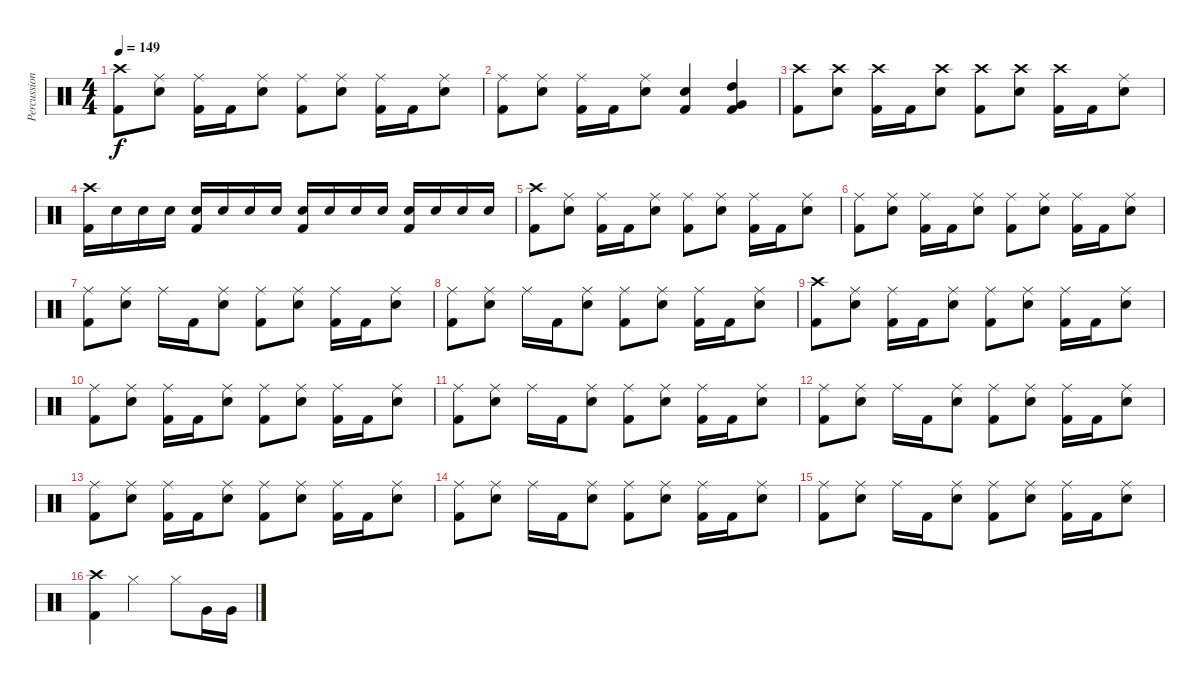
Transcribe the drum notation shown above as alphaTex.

\track ("Percussion" "Percussion") {instrument percussion}
\staff {score}
\articulation defaults
\ts (4 4)
\tempo 149
\clef neutral
\ks c
("Crash high (hit)" "Kick (hit) 2").8{dy f} ("Ride (middle)" "Snare (hit) 2").8 ("Ride (middle)" "Kick (hit) 2").16 "Kick (hit) 2".16 ("Ride (middle)" "Snare (hit) 2").8 ("Ride (middle)" "Kick (hit) 2").8 ("Ride (middle)" "Snare (hit) 2").8 ("Ride (middle)" "Kick (hit) 2").16 "Kick (hit) 2".16 ("Ride (middle)" "Snare (hit) 2").8 |
("Ride (middle)" "Kick (hit) 2").8 ("Ride (middle)" "Snare (hit) 2").8 ("Ride (middle)" "Kick (hit) 2").16 "Kick (hit) 2".16 ("Ride (middle)" "Snare (hit) 2").8 ("Snare (hit) 2" "Kick (hit) 2").4 ("High Tom (hit)" "Very Low Tom (hit)" "Kick (hit) 2").4 |
("Crash high (hit)" "Kick (hit) 2").8 ("Crash high (hit)" "Snare (hit) 2").8 ("Crash high (hit)" "Kick (hit) 2").16 "Kick (hit) 2".16 ("Crash high (hit)" "Snare (hit) 2").8 ("Crash high (hit)" "Kick (hit) 2").8 ("Crash high (hit)" "Snare (hit) 2").8 ("Crash high (hit)" "Kick (hit) 2").16 "Kick (hit) 2".16 ("Ride (middle)" "Snare (hit) 2").8 |
("Crash high (hit)" "Kick (hit) 2").16 "Snare (hit) 2".16 "Snare (hit) 2".16 "Snare (hit) 2".16 ("Snare (hit) 2" "Kick (hit) 2").16 "Snare (hit) 2".16 "Snare (hit) 2".16 "Snare (hit) 2".16 ("Snare (hit) 2" "Kick (hit) 2").16 "Snare (hit) 2".16 "Snare (hit) 2".16 "Snare (hit) 2".16 ("Snare (hit) 2" "Kick (hit) 2").16 "Snare (hit) 2".16 "Snare (hit) 2".16 "Snare (hit) 2".16 |
("Crash high (hit)" "Kick (hit) 2").8 ("Ride (middle)" "Snare (hit) 2").8 ("Ride (middle)" "Kick (hit) 2").16 "Kick (hit) 2".16 ("Ride (middle)" "Snare (hit) 2").8 ("Ride (middle)" "Kick (hit) 2").8 ("Ride (middle)" "Snare (hit) 2").8 ("Ride (middle)" "Kick (hit) 2").16 "Kick (hit) 2".16 ("Ride (middle)" "Snare (hit) 2").8 |
("Ride (middle)" "Kick (hit) 2").8 ("Ride (middle)" "Snare (hit) 2").8 ("Ride (middle)" "Kick (hit) 2").16 "Kick (hit) 2".16 ("Ride (middle)" "Snare (hit) 2").8 ("Ride (middle)" "Kick (hit) 2").8 ("Ride (middle)" "Snare (hit) 2").8 ("Ride (middle)" "Kick (hit) 2").16 "Kick (hit) 2".16 ("Ride (middle)" "Snare (hit) 2").8 |
("Ride (middle)" "Kick (hit) 2").8 ("Ride (middle)" "Snare (hit) 2").8 "Ride (middle)".16 "Kick (hit) 2".16 ("Ride (middle)" "Snare (hit) 2").8 ("Ride (middle)" "Kick (hit) 2").8 ("Ride (middle)" "Snare (hit) 2").8 ("Ride (middle)" "Kick (hit) 2").16 "Kick (hit) 2".16 ("Ride (middle)" "Snare (hit) 2").8 |
("Ride (middle)" "Kick (hit) 2").8 ("Ride (middle)" "Snare (hit) 2").8 "Ride (middle)".16 "Kick (hit) 2".16 ("Ride (middle)" "Snare (hit) 2").8 ("Ride (middle)" "Kick (hit) 2").8 ("Ride (middle)" "Snare (hit) 2").8 ("Ride (middle)" "Kick (hit) 2").16 "Kick (hit) 2".16 ("Ride (middle)" "Snare (hit) 2").8 |
("Crash high (hit)" "Kick (hit) 2").8 ("Ride (middle)" "Snare (hit) 2").8 ("Ride (middle)" "Kick (hit) 2").16 "Kick (hit) 2".16 ("Ride (middle)" "Snare (hit) 2").8 ("Ride (middle)" "Kick (hit) 2").8 ("Ride (middle)" "Snare (hit) 2").8 ("Ride (middle)" "Kick (hit) 2").16 "Kick (hit) 2".16 ("Ride (middle)" "Snare (hit) 2").8 |
("Ride (middle)" "Kick (hit) 2").8 ("Ride (middle)" "Snare (hit) 2").8 ("Ride (middle)" "Kick (hit) 2").16 "Kick (hit) 2".16 ("Ride (middle)" "Snare (hit) 2").8 ("Ride (middle)" "Kick (hit) 2").8 ("Ride (middle)" "Snare (hit) 2").8 ("Ride (middle)" "Kick (hit) 2").16 "Kick (hit) 2".16 ("Ride (middle)" "Snare (hit) 2").8 |
("Ride (middle)" "Kick (hit) 2").8 ("Ride (middle)" "Snare (hit) 2").8 "Ride (middle)".16 "Kick (hit) 2".16 ("Ride (middle)" "Snare (hit) 2").8 ("Ride (middle)" "Kick (hit) 2").8 ("Ride (middle)" "Snare (hit) 2").8 ("Ride (middle)" "Kick (hit) 2").16 "Kick (hit) 2".16 ("Ride (middle)" "Snare (hit) 2").8 |
("Ride (middle)" "Kick (hit) 2").8 ("Ride (middle)" "Snare (hit) 2").8 "Ride (middle)".16 "Kick (hit) 2".16 ("Ride (middle)" "Snare (hit) 2").8 ("Ride (middle)" "Kick (hit) 2").8 ("Ride (middle)" "Snare (hit) 2").8 ("Ride (middle)" "Kick (hit) 2").16 "Kick (hit) 2".16 ("Ride (middle)" "Snare (hit) 2").8 |
("Ride (middle)" "Kick (hit) 2").8 ("Ride (middle)" "Snare (hit) 2").8 ("Ride (middle)" "Kick (hit) 2").16 "Kick (hit) 2".16 ("Ride (middle)" "Snare (hit) 2").8 ("Ride (middle)" "Kick (hit) 2").8 ("Ride (middle)" "Snare (hit) 2").8 ("Ride (middle)" "Kick (hit) 2").16 "Kick (hit) 2".16 ("Ride (middle)" "Snare (hit) 2").8 |
("Ride (middle)" "Kick (hit) 2").8 ("Ride (middle)" "Snare (hit) 2").8 "Ride (middle)".16 "Kick (hit) 2".16 ("Ride (middle)" "Snare (hit) 2").8 ("Ride (middle)" "Kick (hit) 2").8 ("Ride (middle)" "Snare (hit) 2").8 ("Ride (middle)" "Kick (hit) 2").16 "Kick (hit) 2".16 ("Ride (middle)" "Snare (hit) 2").8 |
("Ride (middle)" "Kick (hit) 2").8 ("Ride (middle)" "Snare (hit) 2").8 "Ride (middle)".16 "Kick (hit) 2".16 ("Ride (middle)" "Snare (hit) 2").8 ("Ride (middle)" "Kick (hit) 2").8 ("Ride (middle)" "Snare (hit) 2").8 ("Ride (middle)" "Kick (hit) 2").16 "Kick (hit) 2".16 ("Ride (middle)" "Snare (hit) 2").8 |
("Crash high (hit)" "Kick (hit) 2").4 "Hi-Hat (closed)".2 "Hi-Hat (closed)".8 "Very Low Tom (hit)".16 "Very Low Tom (hit)".16
